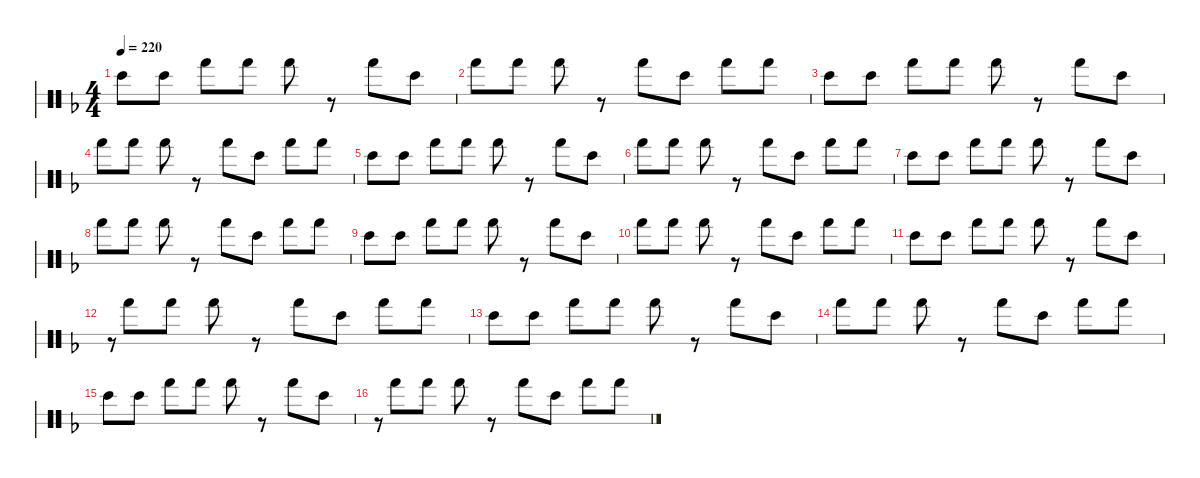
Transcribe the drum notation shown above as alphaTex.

\hideDynamics
\bracketExtendMode nobrackets
\singleTrackTrackNamePolicy hidden
\multiTrackTrackNamePolicy hidden
\firstSystemTrackNameMode fullname
\firstSystemTrackNameOrientation horizontal
\otherSystemsTrackNameOrientation horizontal
\track ("Bongos" "bngKit") {instrument percussion}
\staff {score 2}
\articulation defaults
\ts (4 4)
\tempo 220
\clef neutral
\ks dminor "Bongo High (hit)"{acc forcenatural}.8{dy mp} "Bongo High (hit)"{acc forcenatural}.8 "Hand (hit)"{acc forcenatural}.8{dy p} "Hand (hit)"{acc forcenatural}.8 "Hand (hit)"{acc forcenatural}.8{dy mp}
r.8 "Hand (hit)"{acc forcenatural}.8 "Bongo High (hit)"{acc forcenatural}.8 |
"Hand (hit)"{acc forcenatural}.8{dy p} "Hand (hit)"{acc forcenatural}.8 "Hand (hit)"{acc forcenatural}.8{dy mp} r.8 "Hand (hit)"{acc forcenatural}.8 "Bongo High (hit)"{acc forcenatural}.8 "Hand (hit)"{acc forcenatural}.8{dy p} "Hand (hit)"{acc forcenatural}.8 |
"Bongo High (hit)"{acc forcenatural}.8{dy mp} "Bongo High (hit)"{acc forcenatural}.8 "Hand (hit)"{acc forcenatural}.8{dy p} "Hand (hit)"{acc forcenatural}.8 "Hand (hit)"{acc forcenatural}.8{dy mp} r.8 "Hand (hit)"{acc forcenatural}.8 "Bongo High (hit)"{acc forcenatural}.8 |
"Hand (hit)"{acc forcenatural}.8{dy p} "Hand (hit)"{acc forcenatural}.8 "Hand (hit)"{acc forcenatural}.8{dy mp} r.8 "Hand (hit)"{acc forcenatural}.8 "Bongo High (hit)"{acc forcenatural}.8 "Hand (hit)"{acc forcenatural}.8{dy p} "Hand (hit)"{acc forcenatural}.8 |
"Bongo High (hit)"{acc forcenatural}.8{dy mp} "Bongo High (hit)"{acc forcenatural}.8 "Hand (hit)"{acc forcenatural}.8{dy p} "Hand (hit)"{acc forcenatural}.8 "Hand (hit)"{acc forcenatural}.8{dy mp} r.8 "Hand (hit)"{acc forcenatural}.8 "Bongo High (hit)"{acc forcenatural}.8 |
"Hand (hit)"{acc forcenatural}.8{dy p} "Hand (hit)"{acc forcenatural}.8 "Hand (hit)"{acc forcenatural}.8{dy mp} r.8 "Hand (hit)"{acc forcenatural}.8 "Bongo High (hit)"{acc forcenatural}.8 "Hand (hit)"{acc forcenatural}.8{dy p} "Hand (hit)"{acc forcenatural}.8 |
"Bongo High (hit)"{acc forcenatural}.8{dy mp} "Bongo High (hit)"{acc forcenatural}.8 "Hand (hit)"{acc forcenatural}.8{dy p} "Hand (hit)"{acc forcenatural}.8 "Hand (hit)"{acc forcenatural}.8{dy mp} r.8 "Hand (hit)"{acc forcenatural}.8 "Bongo High (hit)"{acc forcenatural}.8 |
"Hand (hit)"{acc forcenatural}.8{dy p} "Hand (hit)"{acc forcenatural}.8 "Hand (hit)"{acc forcenatural}.8{dy mp} r.8 "Hand (hit)"{acc forcenatural}.8 "Bongo High (hit)"{acc forcenatural}.8 "Hand (hit)"{acc forcenatural}.8{dy p} "Hand (hit)"{acc forcenatural}.8 |
"Bongo High (hit)"{acc forcenatural}.8{dy mp} "Bongo High (hit)"{acc forcenatural}.8 "Hand (hit)"{acc forcenatural}.8{dy p} "Hand (hit)"{acc forcenatural}.8 "Hand (hit)"{acc forcenatural}.8{dy mp} r.8 "Hand (hit)"{acc forcenatural}.8 "Bongo High (hit)"{acc forcenatural}.8 |
"Hand (hit)"{acc forcenatural}.8{dy p} "Hand (hit)"{acc forcenatural}.8 "Hand (hit)"{acc forcenatural}.8{dy mp} r.8 "Hand (hit)"{acc forcenatural}.8 "Bongo High (hit)"{acc forcenatural}.8 "Hand (hit)"{acc forcenatural}.8{dy p} "Hand (hit)"{acc forcenatural}.8 |
"Bongo High (hit)"{acc forcenatural}.8{dy mp} "Bongo High (hit)"{acc forcenatural}.8 "Hand (hit)"{acc forcenatural}.8{dy p} "Hand (hit)"{acc forcenatural}.8 "Hand (hit)"{acc forcenatural}.8{dy mp} r.8 "Hand (hit)"{acc forcenatural}.8 "Bongo High (hit)"{acc forcenatural}.8 |
r.8{gr} "Hand (hit)"{acc forcenatural}.8{dy p} "Hand (hit)"{acc forcenatural}.8 "Hand (hit)"{acc forcenatural}.8{dy mp} r.8 "Hand (hit)"{acc forcenatural}.8 "Bongo High (hit)"{acc forcenatural}.8 "Hand (hit)"{acc forcenatural}.8{dy p} "Hand (hit)"{acc forcenatural}.8 |
"Bongo High (hit)"{acc forcenatural}.8{dy mp} "Bongo High (hit)"{acc forcenatural}.8 "Hand (hit)"{acc forcenatural}.8{dy p} "Hand (hit)"{acc forcenatural}.8 "Hand (hit)"{acc forcenatural}.8{dy mp} r.8 "Hand (hit)"{acc forcenatural}.8 "Bongo High (hit)"{acc forcenatural}.8 |
"Hand (hit)"{acc forcenatural}.8{dy p} "Hand (hit)"{acc forcenatural}.8 "Hand (hit)"{acc forcenatural}.8{dy mp} r.8 "Hand (hit)"{acc forcenatural}.8 "Bongo High (hit)"{acc forcenatural}.8 "Hand (hit)"{acc forcenatural}.8{dy p} "Hand (hit)"{acc forcenatural}.8 |
"Bongo High (hit)"{acc forcenatural}.8{dy mp} "Bongo High (hit)"{acc forcenatural}.8 "Hand (hit)"{acc forcenatural}.8{dy p} "Hand (hit)"{acc forcenatural}.8 "Hand (hit)"{acc forcenatural}.8{dy mp} r.8 "Hand (hit)"{acc forcenatural}.8 "Bongo High (hit)"{acc forcenatural}.8 |
r.8{gr} "Hand (hit)"{acc forcenatural}.8{dy p} "Hand (hit)"{acc forcenatural}.8 "Hand (hit)"{acc forcenatural}.8{dy mp} r.8 "Hand (hit)"{acc forcenatural}.8 "Bongo High (hit)"{acc forcenatural}.8 "Hand (hit)"{acc forcenatural}.8{dy p} "Hand (hit)"{acc forcenatural}.8
